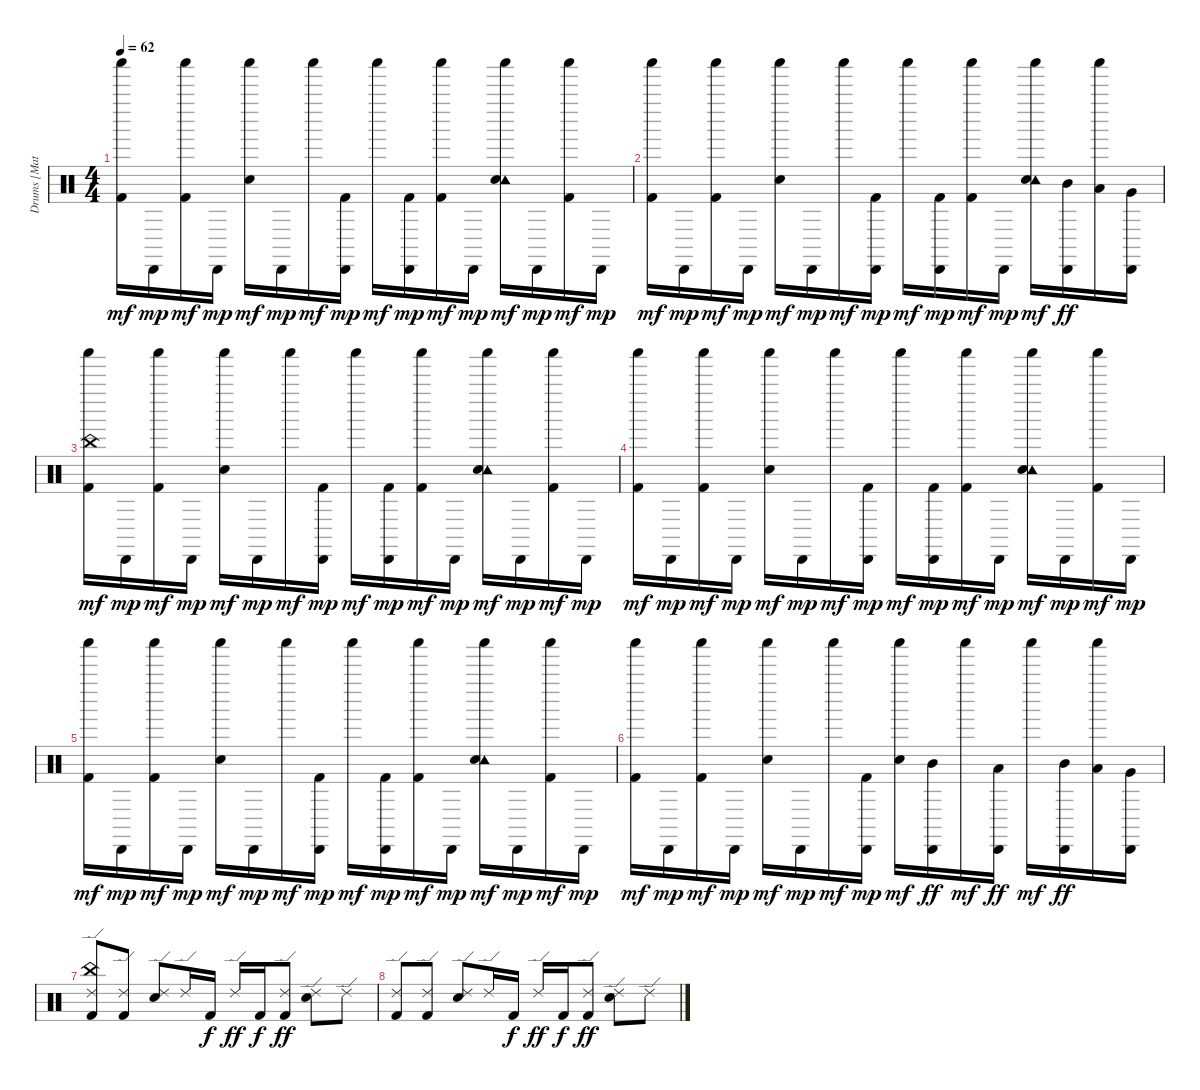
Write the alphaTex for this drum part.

\track ("Drums [Matt]" "Drums [Mat") {instrument percussion}
\staff {score}
\articulation defaults
\ts (4 4)
\tempo 62
\clef neutral
\ks c
("Shaker (hit)" "Kick (hit) 2").16{dy mf} "Cabasa (hit)".16{dy mp} ("Shaker (hit)" "Kick (hit) 2").16{dy mf} "Cabasa (hit)".16{dy mp} ("Shaker (hit)" "Snare (hit) 2").16{dy mf} "Cabasa (hit)".16{dy mp} "Shaker (hit)".16{dy mf} ("Cabasa (hit)" "Kick (hit) 2").16{dy mp} "Shaker (hit)".16{dy mf} ("Cabasa (hit)" "Kick (hit) 2").16{dy mp} ("Shaker (hit)" "Kick (hit) 2").16{dy mf} "Cabasa (hit)".16{dy mp} ("Tambourine (hit)" "Shaker (hit)" "Snare (hit) 2").16{dy mf} "Cabasa (hit)".16{dy mp} ("Shaker (hit)" "Kick (hit) 2").16{dy mf} "Cabasa (hit)".16{dy mp} |
("Shaker (hit)" "Kick (hit) 2").16{dy mf} "Cabasa (hit)".16{dy mp} ("Shaker (hit)" "Kick (hit) 2").16{dy mf} "Cabasa (hit)".16{dy mp} ("Shaker (hit)" "Snare (hit) 2").16{dy mf} "Cabasa (hit)".16{dy mp} "Shaker (hit)".16{dy mf} ("Cabasa (hit)" "Kick (hit) 2").16{dy mp} "Shaker (hit)".16{dy mf} ("Cabasa (hit)" "Kick (hit) 2").16{dy mp} ("Shaker (hit)" "Kick (hit) 2").16{dy mf} "Cabasa (hit)".16{dy mp} ("Tambourine (hit)" "Shaker (hit)" "Snare (hit) 2").16{dy mf} ("Cabasa (hit)" "Mid Tom (hit)").16{dy ff} ("Shaker (hit)" "Low Tom (hit)").16 ("Cabasa (hit)" "Very Low Tom (hit)").16 |
("China (hit)" "Shaker (hit)" "Kick (hit) 2").16{dy mf} "Cabasa (hit)".16{dy mp} ("Shaker (hit)" "Kick (hit) 2").16{dy mf} "Cabasa (hit)".16{dy mp} ("Shaker (hit)" "Snare (hit) 2").16{dy mf} "Cabasa (hit)".16{dy mp} "Shaker (hit)".16{dy mf} ("Cabasa (hit)" "Kick (hit) 2").16{dy mp} "Shaker (hit)".16{dy mf} ("Cabasa (hit)" "Kick (hit) 2").16{dy mp} ("Shaker (hit)" "Kick (hit) 2").16{dy mf} "Cabasa (hit)".16{dy mp} ("Tambourine (hit)" "Shaker (hit)" "Snare (hit) 2").16{dy mf} "Cabasa (hit)".16{dy mp} ("Shaker (hit)" "Kick (hit) 2").16{dy mf} "Cabasa (hit)".16{dy mp} |
("Shaker (hit)" "Kick (hit) 2").16{dy mf} "Cabasa (hit)".16{dy mp} ("Shaker (hit)" "Kick (hit) 2").16{dy mf} "Cabasa (hit)".16{dy mp} ("Shaker (hit)" "Snare (hit) 2").16{dy mf} "Cabasa (hit)".16{dy mp} "Shaker (hit)".16{dy mf} ("Cabasa (hit)" "Kick (hit) 2").16{dy mp} "Shaker (hit)".16{dy mf} ("Cabasa (hit)" "Kick (hit) 2").16{dy mp} ("Shaker (hit)" "Kick (hit) 2").16{dy mf} "Cabasa (hit)".16{dy mp} ("Tambourine (hit)" "Shaker (hit)" "Snare (hit) 2").16{dy mf} "Cabasa (hit)".16{dy mp} ("Shaker (hit)" "Kick (hit) 2").16{dy mf} "Cabasa (hit)".16{dy mp} |
("Shaker (hit)" "Kick (hit) 2").16{dy mf} "Cabasa (hit)".16{dy mp} ("Shaker (hit)" "Kick (hit) 2").16{dy mf} "Cabasa (hit)".16{dy mp} ("Shaker (hit)" "Snare (hit) 2").16{dy mf} "Cabasa (hit)".16{dy mp} "Shaker (hit)".16{dy mf} ("Cabasa (hit)" "Kick (hit) 2").16{dy mp} "Shaker (hit)".16{dy mf} ("Cabasa (hit)" "Kick (hit) 2").16{dy mp} ("Shaker (hit)" "Kick (hit) 2").16{dy mf} "Cabasa (hit)".16{dy mp} ("Tambourine (hit)" "Shaker (hit)" "Snare (hit) 2").16{dy mf} "Cabasa (hit)".16{dy mp} ("Shaker (hit)" "Kick (hit) 2").16{dy mf} "Cabasa (hit)".16{dy mp} |
("Shaker (hit)" "Kick (hit) 2").16{dy mf} "Cabasa (hit)".16{dy mp} ("Shaker (hit)" "Kick (hit) 2").16{dy mf} "Cabasa (hit)".16{dy mp} ("Shaker (hit)" "Snare (hit) 2").16{dy mf} "Cabasa (hit)".16{dy mp} "Shaker (hit)".16{dy mf} ("Cabasa (hit)" "Kick (hit) 2").16{dy mp} ("Shaker (hit)" "Snare (hit) 2").16{dy mf} ("Cabasa (hit)" "Mid Tom (hit)").16{dy ff} "Shaker (hit)".16{dy mf} ("Cabasa (hit)" "Low Tom (hit)").16{dy ff} "Shaker (hit)".16{dy mf} ("Cabasa (hit)" "Mid Tom (hit)").16{dy ff} ("Shaker (hit)" "Low Tom (hit)").16 ("Cabasa (hit)" "Very Low Tom (hit)").16 |
("China (hit)" "Ride (edge) 2" "Kick (hit) 2").8 ("Ride (edge) 2" "Kick (hit) 2").8 ("Ride (edge) 2" "Snare (hit) 2").8 "Ride (edge) 2".16 "Kick (hit) 2".16{dy f} "Ride (edge) 2".16{dy ff} "Kick (hit) 2".16{dy f} ("Ride (edge) 2" "Kick (hit) 2").8{dy ff} ("Ride (edge) 2" "Snare (hit) 2").8 "Ride (edge) 2".8 |
("Ride (edge) 2" "Kick (hit) 2").8 ("Ride (edge) 2" "Kick (hit) 2").8 ("Ride (edge) 2" "Snare (hit) 2").8 "Ride (edge) 2".16 "Kick (hit) 2".16{dy f} "Ride (edge) 2".16{dy ff} "Kick (hit) 2".16{dy f} ("Ride (edge) 2" "Kick (hit) 2").8{dy ff} ("Ride (edge) 2" "Snare (hit) 2").8 "Ride (edge) 2".8
